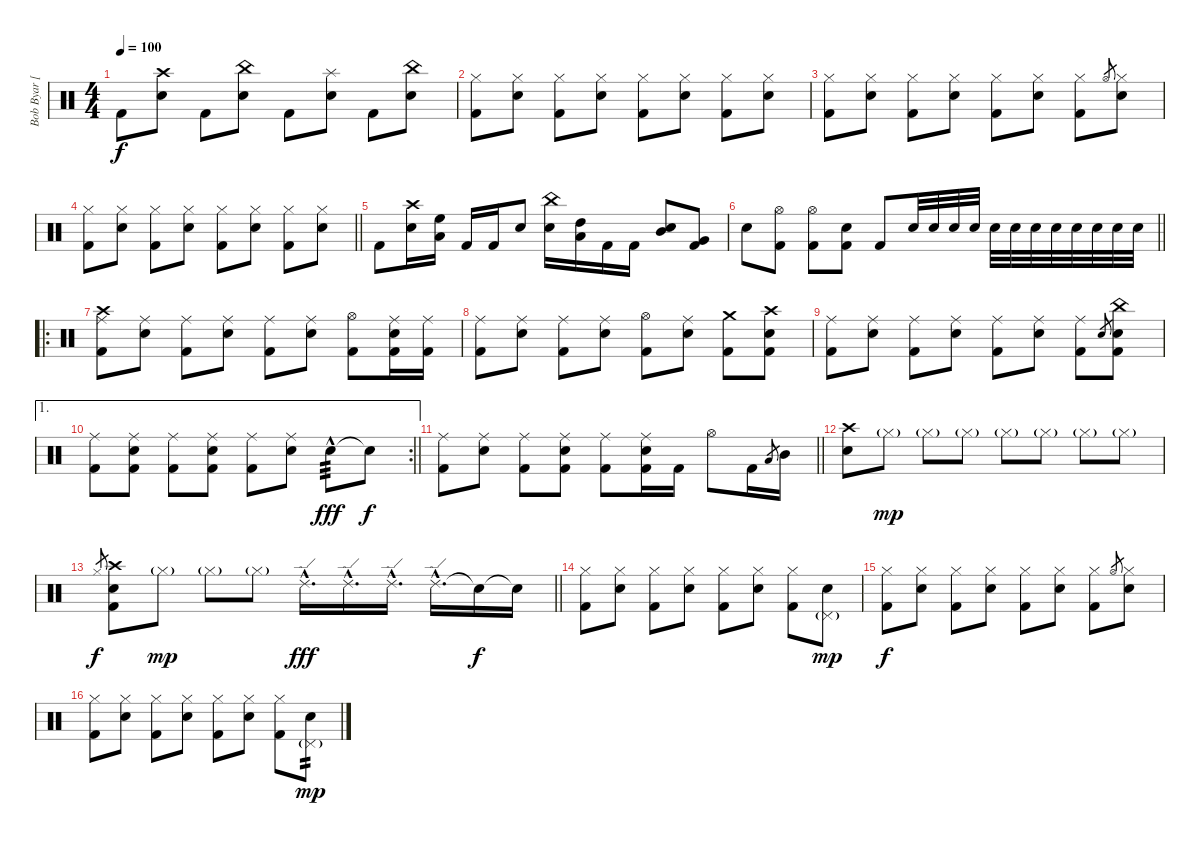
\track ("Bob Byar [Drums]" "Bob Byar [") {instrument percussion}
\staff {score}
\articulation defaults
\ts (4 4)
\tempo 100
\clef neutral
\ks c "Kick (hit) 2".8{dy f}
("Crash high (hit)" "Electric Snare (hit)").8 "Kick (hit) 2".8 ("China (hit)" "Electric Snare (hit)").8 "Kick (hit) 2".8 ("Splash (hit)" "Electric Snare (hit)").8 "Kick (hit) 2".8 ("China (hit)" "Electric Snare (hit)").8 |
("Hi-Hat (closed)" "Kick (hit) 2").8 ("Hi-Hat (closed)" "Electric Snare (hit)").8 ("Hi-Hat (closed)" "Kick (hit) 2").8 ("Hi-Hat (closed)" "Electric Snare (hit)").8 ("Hi-Hat (closed)" "Kick (hit) 2").8 ("Hi-Hat (closed)" "Electric Snare (hit)").8 ("Hi-Hat (closed)" "Kick (hit) 2").8 ("Hi-Hat (closed)" "Electric Snare (hit)").8 |
("Hi-Hat (closed)" "Kick (hit) 2").8 ("Hi-Hat (closed)" "Electric Snare (hit)").8 ("Hi-Hat (closed)" "Kick (hit) 2").8 ("Hi-Hat (closed)" "Electric Snare (hit)").8 ("Hi-Hat (closed)" "Kick (hit) 2").8 ("Hi-Hat (closed)" "Electric Snare (hit)").8 ("Hi-Hat (closed)" "Kick (hit) 2").8 "Hi-Hat (open)".8{gr} ("Hi-Hat (closed)" "Electric Snare (hit)").8 |
\barLineRight lightlight
("Hi-Hat (closed)" "Kick (hit) 2").8 ("Hi-Hat (closed)" "Electric Snare (hit)").8 ("Hi-Hat (closed)" "Kick (hit) 2").8 ("Hi-Hat (closed)" "Electric Snare (hit)").8 ("Hi-Hat (closed)" "Kick (hit) 2").8 ("Hi-Hat (closed)" "Electric Snare (hit)").8 ("Hi-Hat (closed)" "Kick (hit) 2").8 ("Hi-Hat (closed)" "Electric Snare (hit)").8 |
"Kick (hit) 2".8 ("Crash high (hit)" "Electric Snare (hit)").16 ("High Floor Tom (hit)" "Low Tom (hit)").16 "Kick (hit) 2".16 "Kick (hit) 2".16 "Electric Snare (hit)".8 ("China (hit)" "Electric Snare (hit)").16 ("High Tom (hit)" "Low Tom (hit)").16 "Kick (hit) 2".16 "Kick (hit) 2".16 ("Mid Tom (hit)" "Electric Snare (hit)").8 ("Very Low Tom (hit)" "Kick (hit) 2").8 |
\barLineRight lightlight "Electric Snare (hit)".8
("Hi-Hat (open)" "Kick (hit) 2").8 ("Hi-Hat (open)" "Kick (hit) 2").8 ("Electric Snare (hit)" "Kick (hit) 2").8 "Kick (hit) 2".8 "Electric Snare (hit)".32 "Electric Snare (hit)".32 "Electric Snare (hit)".32 "Electric Snare (hit)".32 "Electric Snare (hit)".32 "Electric Snare (hit)".32 "Electric Snare (hit)".32 "Electric Snare (hit)".32 "Electric Snare (hit)".32 "Electric Snare (hit)".32 "Electric Snare (hit)".32 "Electric Snare (hit)".32 |
\ro
("Ride (middle)" "Crash high (hit)" "Kick (hit) 2").8 ("Ride (middle)" "Electric Snare (hit)").8 ("Ride (middle)" "Kick (hit) 2").8 ("Ride (middle)" "Electric Snare (hit)").8 ("Ride (middle)" "Kick (hit) 2").8 ("Ride (middle)" "Electric Snare (hit)").8 ("Hi-Hat (open)" "Kick (hit) 2").8 ("Ride (middle)" "Electric Snare (hit)" "Kick (hit) 2").16 ("Ride (middle)" "Kick (hit) 2").16 |
("Ride (middle)" "Kick (hit) 2").8 ("Ride (middle)" "Electric Snare (hit)").8 ("Ride (middle)" "Kick (hit) 2").8 ("Ride (middle)" "Electric Snare (hit)").8 ("Hi-Hat (open)" "Kick (hit) 2").8 ("Ride (middle)" "Electric Snare (hit)").8 ("Crash medium (hit)" "Kick (hit) 2").8 ("Crash high (hit)" "Electric Snare (hit)" "Kick (hit) 2").8 |
("Ride (middle)" "Kick (hit) 2").8 ("Ride (middle)" "Electric Snare (hit)").8 ("Ride (middle)" "Kick (hit) 2").8 ("Ride (middle)" "Electric Snare (hit)").8 ("Ride (middle)" "Kick (hit) 2").8 ("Ride (middle)" "Electric Snare (hit)").8 ("Ride (middle)" "Kick (hit) 2").8 "Electric Snare (hit)".8{gr} ("China (hit)" "Electric Snare (hit)" "Kick (hit) 2").8 |
\ae 1
\rc 2
\barLineRight lightlight
("Ride (middle)" "Kick (hit) 2").8 ("Ride (middle)" "Electric Snare (hit)" "Kick (hit) 2").8 ("Ride (middle)" "Kick (hit) 2").8 ("Ride (middle)" "Electric Snare (hit)" "Kick (hit) 2").8 ("Ride (middle)" "Kick (hit) 2").8 ("Ride (middle)" "Electric Snare (hit)").8 "Electric Snare (hit)"{hac}.8{tp 3 dy fff} "Electric Snare (hit)"{t}.8{dy f} |
\barLineRight lightlight
("Ride (middle)" "Kick (hit) 2").8 ("Ride (middle)" "Electric Snare (hit)").8 ("Ride (middle)" "Kick (hit) 2").8 ("Ride (middle)" "Electric Snare (hit)" "Kick (hit) 2").8 ("Ride (middle)" "Kick (hit) 2").8 ("Ride (middle)" "Electric Snare (hit)" "Kick (hit) 2").16 "Kick (hit) 2".16 "Hi-Hat (open)".8 "Kick (hit) 2".16 "Low Tom (hit)".8{gr} "Mid Tom (hit)".16 |
("Crash high (hit)" "Electric Snare (hit)").8 "Hi-Hat (closed)"{g}.8{dy mp} "Hi-Hat (closed)"{g}.8 "Hi-Hat (closed)"{g}.8 "Hi-Hat (closed)"{g}.8 "Hi-Hat (closed)"{g}.8 "Hi-Hat (closed)"{g}.8 "Hi-Hat (closed)"{g}.8 |
\barLineRight lightlight "Hi-Hat (closed)".8{gr dy f}
("Kick (hit) 2" "Electric Snare (hit)" "Crash high (hit)").8 "Hi-Hat (closed)"{g}.8{dy mp} "Hi-Hat (closed)"{g}.8 "Hi-Hat (closed)"{g}.8 "Ride (edge) 2"{hac}.16{d dy fff} "Ride (edge) 2"{hac}.16{d} "Ride (edge) 2"{hac}.16{d} "Ride (edge) 2"{hac}.16{d} "Snare (hit)"{t}.16{dy f} "Snare (hit)"{t}.16 |
("Hi-Hat (closed)" "Kick (hit) 2").8 ("Hi-Hat (closed)" "Electric Snare (hit)").8 ("Hi-Hat (closed)" "Kick (hit) 2").8 ("Hi-Hat (closed)" "Electric Snare (hit)").8 ("Hi-Hat (closed)" "Kick (hit) 2").8 ("Hi-Hat (closed)" "Electric Snare (hit)").8 ("Hi-Hat (closed)" "Kick (hit) 2").8 ("Pedal Hi-Hat (hit)"{g} "Electric Snare (hit)").8{dy mp} |
("Hi-Hat (closed)" "Kick (hit) 2").8{dy f} ("Hi-Hat (closed)" "Electric Snare (hit)").8 ("Hi-Hat (closed)" "Kick (hit) 2").8 ("Hi-Hat (closed)" "Electric Snare (hit)").8 ("Hi-Hat (closed)" "Kick (hit) 2").8 ("Hi-Hat (closed)" "Electric Snare (hit)").8 ("Hi-Hat (closed)" "Kick (hit) 2").8 "Hi-Hat (open)".8{gr} ("Hi-Hat (closed)" "Electric Snare (hit)").8 |
("Hi-Hat (closed)" "Kick (hit) 2").8 ("Hi-Hat (closed)" "Electric Snare (hit)").8 ("Hi-Hat (closed)" "Kick (hit) 2").8 ("Hi-Hat (closed)" "Electric Snare (hit)").8 ("Hi-Hat (closed)" "Kick (hit) 2").8 ("Hi-Hat (closed)" "Electric Snare (hit)").8 ("Hi-Hat (closed)" "Kick (hit) 2").8 ("Pedal Hi-Hat (hit)"{g} "Electric Snare (hit)").8{tp 2 dy mp}
